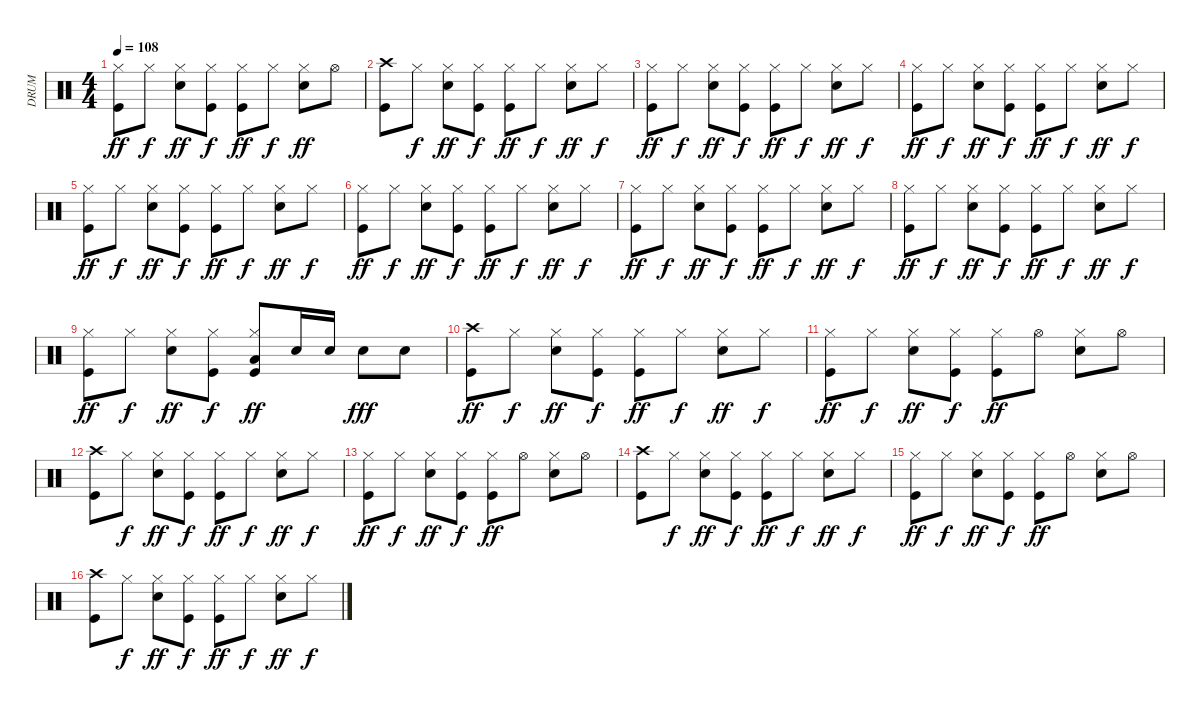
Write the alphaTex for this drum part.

\track ("DRUM" "DRUM") {instrument percussion}
\staff {score}
\articulation defaults
\ts (4 4)
\tempo 108
\clef neutral
\ks c
("Kick (hit)" "Hi-Hat (closed)").8{dy ff} "Hi-Hat (closed)".8{dy f} ("Electric Snare (hit)" "Hi-Hat (closed)").8{dy ff} ("Kick (hit)" "Hi-Hat (closed)").8{dy f} ("Kick (hit)" "Hi-Hat (closed)").8{dy ff} "Hi-Hat (closed)".8{dy f} ("Electric Snare (hit)" "Hi-Hat (closed)").8{dy ff} "Hi-Hat (open)".8 |
("Kick (hit)" "Crash high (hit)").8 "Hi-Hat (closed)".8{dy f} ("Electric Snare (hit)" "Hi-Hat (closed)").8{dy ff} ("Kick (hit)" "Hi-Hat (closed)").8{dy f} ("Kick (hit)" "Hi-Hat (closed)").8{dy ff} "Hi-Hat (closed)".8{dy f} ("Electric Snare (hit)" "Hi-Hat (closed)").8{dy ff} "Hi-Hat (closed)".8{dy f} |
("Kick (hit)" "Hi-Hat (closed)").8{dy ff} "Hi-Hat (closed)".8{dy f} ("Electric Snare (hit)" "Hi-Hat (closed)").8{dy ff} ("Kick (hit)" "Hi-Hat (closed)").8{dy f} ("Kick (hit)" "Hi-Hat (closed)").8{dy ff} "Hi-Hat (closed)".8{dy f} ("Electric Snare (hit)" "Hi-Hat (closed)").8{dy ff} "Hi-Hat (closed)".8{dy f} |
("Kick (hit)" "Hi-Hat (closed)").8{dy ff} "Hi-Hat (closed)".8{dy f} ("Electric Snare (hit)" "Hi-Hat (closed)").8{dy ff} ("Kick (hit)" "Hi-Hat (closed)").8{dy f} ("Kick (hit)" "Hi-Hat (closed)").8{dy ff} "Hi-Hat (closed)".8{dy f} ("Electric Snare (hit)" "Hi-Hat (closed)").8{dy ff} "Hi-Hat (closed)".8{dy f} |
("Kick (hit)" "Hi-Hat (closed)").8{dy ff} "Hi-Hat (closed)".8{dy f} ("Electric Snare (hit)" "Hi-Hat (closed)").8{dy ff} ("Kick (hit)" "Hi-Hat (closed)").8{dy f} ("Kick (hit)" "Hi-Hat (closed)").8{dy ff} "Hi-Hat (closed)".8{dy f} ("Electric Snare (hit)" "Hi-Hat (closed)").8{dy ff} "Hi-Hat (closed)".8{dy f} |
("Kick (hit)" "Hi-Hat (closed)").8{dy ff} "Hi-Hat (closed)".8{dy f} ("Electric Snare (hit)" "Hi-Hat (closed)").8{dy ff} ("Kick (hit)" "Hi-Hat (closed)").8{dy f} ("Kick (hit)" "Hi-Hat (closed)").8{dy ff} "Hi-Hat (closed)".8{dy f} ("Electric Snare (hit)" "Hi-Hat (closed)").8{dy ff} "Hi-Hat (closed)".8{dy f} |
("Kick (hit)" "Hi-Hat (closed)").8{dy ff} "Hi-Hat (closed)".8{dy f} ("Electric Snare (hit)" "Hi-Hat (closed)").8{dy ff} ("Kick (hit)" "Hi-Hat (closed)").8{dy f} ("Kick (hit)" "Hi-Hat (closed)").8{dy ff} "Hi-Hat (closed)".8{dy f} ("Electric Snare (hit)" "Hi-Hat (closed)").8{dy ff} "Hi-Hat (closed)".8{dy f} |
("Kick (hit)" "Hi-Hat (closed)").8{dy ff} "Hi-Hat (closed)".8{dy f} ("Electric Snare (hit)" "Hi-Hat (closed)").8{dy ff} ("Kick (hit)" "Hi-Hat (closed)").8{dy f} ("Kick (hit)" "Hi-Hat (closed)").8{dy ff} "Hi-Hat (closed)".8{dy f} ("Electric Snare (hit)" "Hi-Hat (closed)").8{dy ff} "Hi-Hat (closed)".8{dy f} |
("Kick (hit)" "Hi-Hat (closed)").8{dy ff} "Hi-Hat (closed)".8{dy f} ("Electric Snare (hit)" "Hi-Hat (closed)").8{dy ff} ("Kick (hit)" "Hi-Hat (closed)").8{dy f} ("Kick (hit)" "Hi-Hat (closed)" "Low Tom (hit)").8{dy ff} "Electric Snare (hit)".16 "Electric Snare (hit)".16 "Electric Snare (hit)".8{dy fff} "Electric Snare (hit)".8 |
("Kick (hit)" "Crash high (hit)").8{dy ff} "Hi-Hat (closed)".8{dy f} ("Electric Snare (hit)" "Hi-Hat (closed)").8{dy ff} ("Kick (hit)" "Hi-Hat (closed)").8{dy f} ("Kick (hit)" "Hi-Hat (closed)").8{dy ff} "Hi-Hat (closed)".8{dy f} ("Electric Snare (hit)" "Hi-Hat (closed)").8{dy ff} "Hi-Hat (closed)".8{dy f} |
("Kick (hit)" "Hi-Hat (closed)").8{dy ff} "Hi-Hat (closed)".8{dy f} ("Electric Snare (hit)" "Hi-Hat (closed)").8{dy ff} ("Kick (hit)" "Hi-Hat (closed)").8{dy f} ("Kick (hit)" "Hi-Hat (closed)").8{dy ff} "Hi-Hat (open)".8 ("Electric Snare (hit)" "Hi-Hat (closed)").8 "Hi-Hat (open)".8 |
("Kick (hit)" "Crash high (hit)").8 "Hi-Hat (closed)".8{dy f} ("Electric Snare (hit)" "Hi-Hat (closed)").8{dy ff} ("Kick (hit)" "Hi-Hat (closed)").8{dy f} ("Kick (hit)" "Hi-Hat (closed)").8{dy ff} "Hi-Hat (closed)".8{dy f} ("Electric Snare (hit)" "Hi-Hat (closed)").8{dy ff} "Hi-Hat (closed)".8{dy f} |
("Kick (hit)" "Hi-Hat (closed)").8{dy ff} "Hi-Hat (closed)".8{dy f} ("Electric Snare (hit)" "Hi-Hat (closed)").8{dy ff} ("Kick (hit)" "Hi-Hat (closed)").8{dy f} ("Kick (hit)" "Hi-Hat (closed)").8{dy ff} "Hi-Hat (open)".8 ("Electric Snare (hit)" "Hi-Hat (closed)").8 "Hi-Hat (open)".8 |
("Kick (hit)" "Crash high (hit)").8 "Hi-Hat (closed)".8{dy f} ("Electric Snare (hit)" "Hi-Hat (closed)").8{dy ff} ("Kick (hit)" "Hi-Hat (closed)").8{dy f} ("Kick (hit)" "Hi-Hat (closed)").8{dy ff} "Hi-Hat (closed)".8{dy f} ("Electric Snare (hit)" "Hi-Hat (closed)").8{dy ff} "Hi-Hat (closed)".8{dy f} |
("Kick (hit)" "Hi-Hat (closed)").8{dy ff} "Hi-Hat (closed)".8{dy f} ("Electric Snare (hit)" "Hi-Hat (closed)").8{dy ff} ("Kick (hit)" "Hi-Hat (closed)").8{dy f} ("Kick (hit)" "Hi-Hat (closed)").8{dy ff} "Hi-Hat (open)".8 ("Electric Snare (hit)" "Hi-Hat (closed)").8 "Hi-Hat (open)".8 |
("Kick (hit)" "Crash high (hit)").8 "Hi-Hat (closed)".8{dy f} ("Electric Snare (hit)" "Hi-Hat (closed)").8{dy ff} ("Kick (hit)" "Hi-Hat (closed)").8{dy f} ("Kick (hit)" "Hi-Hat (closed)").8{dy ff} "Hi-Hat (closed)".8{dy f} ("Electric Snare (hit)" "Hi-Hat (closed)").8{dy ff} "Hi-Hat (closed)".8{dy f}
